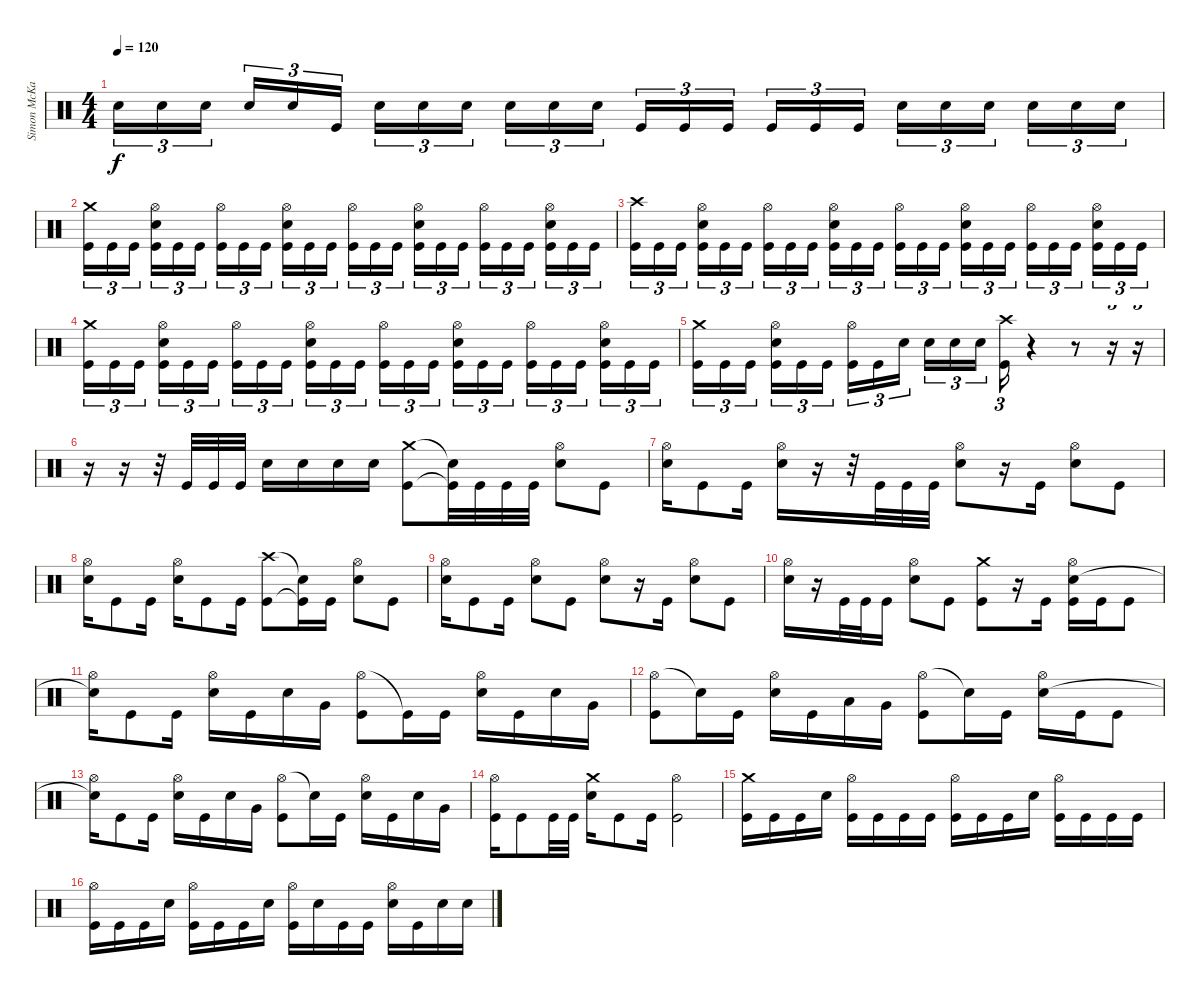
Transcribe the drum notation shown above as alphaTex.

\track ("Simon McKay" "Simon McKa") {instrument percussion}
\staff {score}
\articulation defaults
\ts (4 4)
\tempo 120
\clef neutral
\ks c "Electric Snare (hit)".16{tu (3 2) dy f} "Electric Snare (hit)".16{tu (3 2)} "Electric Snare (hit)".16{tu (3 2) beam splitsecondary} "Electric Snare (hit)".16{tu (3 2)} "Electric Snare (hit)".16{tu (3 2)} "Kick (hit)".16{tu (3 2)} "Electric Snare (hit)".16{tu (3 2)} "Electric Snare (hit)".16{tu (3 2)} "Electric Snare (hit)".16{tu (3 2) beam splitsecondary} "Electric Snare (hit)".16{tu (3 2)} "Electric Snare (hit)".16{tu (3 2)} "Electric Snare (hit)".16{tu (3 2)} "Kick (hit)".16{tu (3 2)} "Kick (hit)".16{tu (3 2)} "Kick (hit)".16{tu (3 2) beam splitsecondary} "Kick (hit)".16{tu (3 2)} "Kick (hit)".16{tu (3 2)} "Kick (hit)".16{tu (3 2)} "Electric Snare (hit)".16{tu (3 2)} "Electric Snare (hit)".16{tu (3 2)} "Electric Snare (hit)".16{tu (3 2) beam splitsecondary} "Electric Snare (hit)".16{tu (3 2)} "Electric Snare (hit)".16{tu (3 2)} "Electric Snare (hit)".16{tu (3 2)}
|
("Crash medium (hit)" "Kick (hit)").16{tu (3 2)} "Kick (hit)".16{tu (3 2)} "Kick (hit)".16{tu (3 2) beam splitsecondary} ("Hi-Hat (open)" "Electric Snare (hit)" "Kick (hit)").16{tu (3 2)} "Kick (hit)".16{tu (3 2)} "Kick (hit)".16{tu (3 2)} ("Hi-Hat (open)" "Kick (hit)").16{tu (3 2)} "Kick (hit)".16{tu (3 2)} "Kick (hit)".16{tu (3 2) beam splitsecondary} ("Hi-Hat (open)" "Electric Snare (hit)" "Kick (hit)").16{tu (3 2)} "Kick (hit)".16{tu (3 2)} "Kick (hit)".16{tu (3 2)} ("Hi-Hat (open)" "Kick (hit)").16{tu (3 2)} "Kick (hit)".16{tu (3 2)} "Kick (hit)".16{tu (3 2) beam splitsecondary} ("Hi-Hat (open)" "Electric Snare (hit)" "Kick (hit)").16{tu (3 2)} "Kick (hit)".16{tu (3 2)} "Kick (hit)".16{tu (3 2)} ("Hi-Hat (open)" "Kick (hit)").16{tu (3 2)} "Kick (hit)".16{tu (3 2)} "Kick (hit)".16{tu (3 2) beam splitsecondary} ("Hi-Hat (open)" "Electric Snare (hit)" "Kick (hit)").16{tu (3 2)} "Kick (hit)".16{tu (3 2)} "Kick (hit)".16{tu (3 2)} |
("Crash high (hit)" "Kick (hit)").16{tu (3 2)} "Kick (hit)".16{tu (3 2)} "Kick (hit)".16{tu (3 2) beam splitsecondary} ("Hi-Hat (open)" "Electric Snare (hit)" "Kick (hit)").16{tu (3 2)} "Kick (hit)".16{tu (3 2)} "Kick (hit)".16{tu (3 2)} ("Hi-Hat (open)" "Kick (hit)").16{tu (3 2)} "Kick (hit)".16{tu (3 2)} "Kick (hit)".16{tu (3 2) beam splitsecondary} ("Hi-Hat (open)" "Electric Snare (hit)" "Kick (hit)").16{tu (3 2)} "Kick (hit)".16{tu (3 2)} "Kick (hit)".16{tu (3 2)} ("Hi-Hat (open)" "Kick (hit)").16{tu (3 2)} "Kick (hit)".16{tu (3 2)} "Kick (hit)".16{tu (3 2) beam splitsecondary} ("Hi-Hat (open)" "Electric Snare (hit)" "Kick (hit)").16{tu (3 2)} "Kick (hit)".16{tu (3 2)} "Kick (hit)".16{tu (3 2)} ("Hi-Hat (open)" "Kick (hit)").16{tu (3 2)} "Kick (hit)".16{tu (3 2)} "Kick (hit)".16{tu (3 2) beam splitsecondary} ("Hi-Hat (open)" "Electric Snare (hit)" "Kick (hit)").16{tu (3 2)} "Kick (hit)".16{tu (3 2)} "Kick (hit)".16{tu (3 2)} |
("Crash medium (hit)" "Kick (hit)").16{tu (3 2)} "Kick (hit)".16{tu (3 2)} "Kick (hit)".16{tu (3 2) beam splitsecondary} ("Hi-Hat (open)" "Electric Snare (hit)" "Kick (hit)").16{tu (3 2)} "Kick (hit)".16{tu (3 2)} "Kick (hit)".16{tu (3 2)} ("Hi-Hat (open)" "Kick (hit)").16{tu (3 2)} "Kick (hit)".16{tu (3 2)} "Kick (hit)".16{tu (3 2) beam splitsecondary} ("Hi-Hat (open)" "Electric Snare (hit)" "Kick (hit)").16{tu (3 2)} "Kick (hit)".16{tu (3 2)} "Kick (hit)".16{tu (3 2)} ("Hi-Hat (open)" "Kick (hit)").16{tu (3 2)} "Kick (hit)".16{tu (3 2)} "Kick (hit)".16{tu (3 2) beam splitsecondary} ("Hi-Hat (open)" "Electric Snare (hit)" "Kick (hit)").16{tu (3 2)} "Kick (hit)".16{tu (3 2)} "Kick (hit)".16{tu (3 2)} ("Hi-Hat (open)" "Kick (hit)").16{tu (3 2)} "Kick (hit)".16{tu (3 2)} "Kick (hit)".16{tu (3 2) beam splitsecondary} ("Hi-Hat (open)" "Electric Snare (hit)" "Kick (hit)").16{tu (3 2)} "Kick (hit)".16{tu (3 2)} "Kick (hit)".16{tu (3 2)} |
("Crash medium (hit)" "Kick (hit)").16{tu (3 2)} "Kick (hit)".16{tu (3 2)} "Kick (hit)".16{tu (3 2) beam splitsecondary} ("Hi-Hat (open)" "Electric Snare (hit)" "Kick (hit)").16{tu (3 2)} "Kick (hit)".16{tu (3 2)} "Kick (hit)".16{tu (3 2)} ("Hi-Hat (open)" "Kick (hit)").16{tu (3 2)} "Kick (hit)".16{tu (3 2)} "Electric Snare (hit)".16{tu (3 2) beam splitsecondary} "Electric Snare (hit)".16{tu (3 2)} "Electric Snare (hit)".16{tu (3 2)} "Electric Snare (hit)".16{tu (3 2)} ("Crash high (hit)" "Kick (hit)").16{tu (3 2)} r.4 r.8 r.16{tu (3 2)} r.16{tu (3 2)} |
r.16 r.16 r.32 "Kick (hit)".32 "Kick (hit)".32 "Kick (hit)".32 "Electric Snare (hit)".16 "Electric Snare (hit)".16 "Electric Snare (hit)".16 "Electric Snare (hit)".16 ("Crash medium (hit)" "Kick (hit)").8 ("Snare (hit)"{t} "Kick (hit)"{t}).32 "Kick (hit)".32 "Kick (hit)".32 "Kick (hit)".32 ("Hi-Hat (open)" "Electric Snare (hit)").8 "Kick (hit)".8 |
("Hi-Hat (open)" "Electric Snare (hit)").16 "Kick (hit)".8 "Kick (hit)".16 ("Hi-Hat (open)" "Electric Snare (hit)").16 r.16 r.32 "Kick (hit)".32 "Kick (hit)".32 "Kick (hit)".32 ("Hi-Hat (open)" "Electric Snare (hit)").8 r.16 "Kick (hit)".16 ("Hi-Hat (open)" "Electric Snare (hit)").8 "Kick (hit)".8 |
("Hi-Hat (open)" "Electric Snare (hit)").16 "Kick (hit)".8 "Kick (hit)".16 ("Hi-Hat (open)" "Electric Snare (hit)").16 "Kick (hit)".8 "Kick (hit)".16 ("Crash high (hit)" "Kick (hit)").8 ("Snare (hit)"{t} "Kick (hit)"{t}).16 "Kick (hit)".16 ("Hi-Hat (open)" "Electric Snare (hit)").8 "Kick (hit)".8 |
("Hi-Hat (open)" "Electric Snare (hit)").16 "Kick (hit)".8 "Kick (hit)".16 ("Hi-Hat (open)" "Electric Snare (hit)").8 "Kick (hit)".8 ("Hi-Hat (open)" "Electric Snare (hit)").8 r.16 "Kick (hit)".16 ("Hi-Hat (open)" "Electric Snare (hit)").8 "Kick (hit)".8 |
("Hi-Hat (open)" "Electric Snare (hit)").16 r.16 "Kick (hit)".32 "Kick (hit)".32 "Kick (hit)".16 ("Hi-Hat (open)" "Electric Snare (hit)").8 "Kick (hit)".8 ("Crash medium (hit)" "Kick (hit)").8 r.16 "Kick (hit)".16 ("Hi-Hat (open)" "Electric Snare (hit)" "Kick (hit)").16 "Kick (hit)".16 "Kick (hit)".8 |
("Hi-Hat (open)" "Snare (hit)"{t}).16 "Kick (hit)".8 "Kick (hit)".16 ("Hi-Hat (open)" "Electric Snare (hit)").16 "Kick (hit)".16 "Electric Snare (hit)".16 "Very Low Tom (hit)".16 ("Hi-Hat (open)" "Kick (hit)").8 "Kick (hit)"{t}.16 "Kick (hit)".16 ("Hi-Hat (open)" "Electric Snare (hit)").16 "Kick (hit)".16 "Electric Snare (hit)".16 "Very Low Tom (hit)".16 |
("Hi-Hat (open)" "Kick (hit)").8 "Snare (hit)"{t}.16 "Kick (hit)".16 ("Hi-Hat (open)" "Electric Snare (hit)").16 "Kick (hit)".16 "Low Tom (hit)".16 "Very Low Tom (hit)".16 ("Hi-Hat (open)" "Kick (hit)").8 "Snare (hit)"{t}.16 "Kick (hit)".16 ("Hi-Hat (open)" "Electric Snare (hit)").16 "Kick (hit)".16 "Kick (hit)".8 |
("Hi-Hat (open)" "Snare (hit)"{t}).16 "Kick (hit)".8 "Kick (hit)".16 ("Hi-Hat (open)" "Electric Snare (hit)").16 "Kick (hit)".16 "Electric Snare (hit)".16 "Very Low Tom (hit)".16 ("Hi-Hat (open)" "Kick (hit)").8 "Snare (hit)"{t}.16 "Kick (hit)".16 ("Hi-Hat (open)" "Electric Snare (hit)").16 "Kick (hit)".16 "Electric Snare (hit)".16 "Very Low Tom (hit)".16 |
("Hi-Hat (open)" "Kick (hit)").16 "Kick (hit)".8 "Kick (hit)".32 "Kick (hit)".32 ("Crash medium (hit)" "Electric Snare (hit)").16 "Kick (hit)".8 "Kick (hit)".16 ("Hi-Hat (open)" "Kick (hit)").2 |
("Crash medium (hit)" "Kick (hit)").16 "Kick (hit)".16 "Kick (hit)".16 "Electric Snare (hit)".16 ("Hi-Hat (open)" "Kick (hit)").16 "Kick (hit)".16 "Kick (hit)".16 "Kick (hit)".16 ("Hi-Hat (open)" "Kick (hit)").16 "Kick (hit)".16 "Kick (hit)".16 "Electric Snare (hit)".16 ("Hi-Hat (open)" "Kick (hit)").16 "Kick (hit)".16 "Kick (hit)".16 "Kick (hit)".16 |
("Hi-Hat (open)" "Kick (hit)").16 "Kick (hit)".16 "Kick (hit)".16 "Electric Snare (hit)".16 ("Hi-Hat (open)" "Kick (hit)").16 "Kick (hit)".16 "Kick (hit)".16 "Electric Snare (hit)".16 ("Hi-Hat (open)" "Kick (hit)").16 "Electric Snare (hit)".16 "Kick (hit)".16 "Kick (hit)".16 ("Hi-Hat (open)" "Electric Snare (hit)").16 "Kick (hit)".16 "Electric Snare (hit)".16 "Electric Snare (hit)".16
